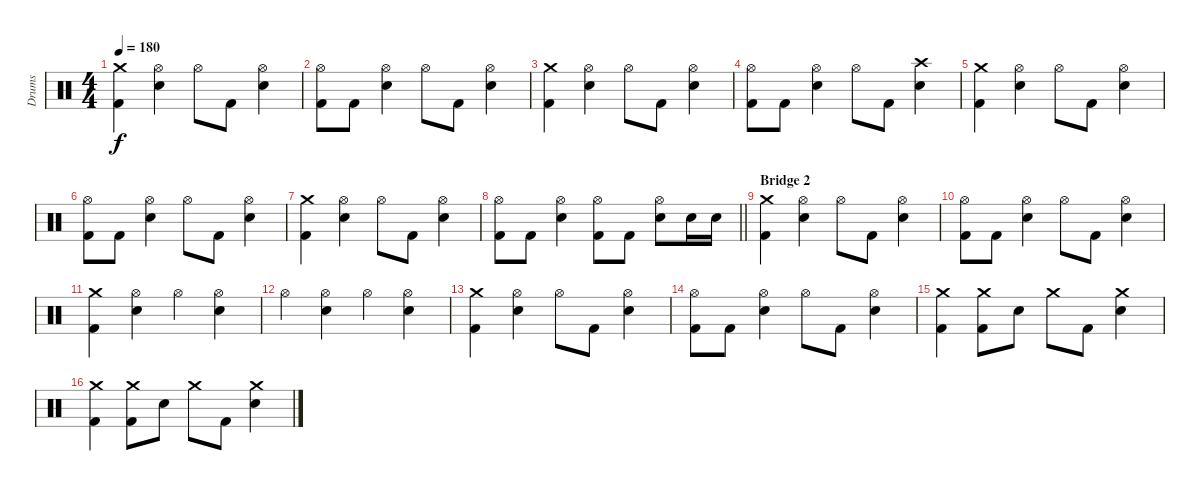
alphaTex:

\track ("Drums" "Drums") {instrument percussion}
\staff {score}
\articulation defaults
\ts (4 4)
\tempo 180
\clef neutral
\ks c
("Crash medium (hit)" "Kick (hit) 2").4{dy f} ("Hi-Hat (open)" "Electric Snare (hit)").4 "Hi-Hat (open)".8 "Kick (hit) 2".8 ("Hi-Hat (open)" "Electric Snare (hit)").4 |
("Hi-Hat (open)" "Kick (hit) 2").8 "Kick (hit) 2".8 ("Hi-Hat (open)" "Electric Snare (hit)").4 "Hi-Hat (open)".8 "Kick (hit) 2".8 ("Hi-Hat (open)" "Electric Snare (hit)").4 |
("Crash medium (hit)" "Kick (hit) 2").4 ("Hi-Hat (open)" "Electric Snare (hit)").4 "Hi-Hat (open)".8 "Kick (hit) 2".8 ("Hi-Hat (open)" "Electric Snare (hit)").4 |
("Hi-Hat (open)" "Kick (hit) 2").8 "Kick (hit) 2".8 ("Hi-Hat (open)" "Electric Snare (hit)").4 "Hi-Hat (open)".8 "Kick (hit) 2".8 ("Crash high (hit)" "Electric Snare (hit)").4 |
("Crash medium (hit)" "Kick (hit) 2").4 ("Hi-Hat (open)" "Electric Snare (hit)").4 "Hi-Hat (open)".8 "Kick (hit) 2".8 ("Hi-Hat (open)" "Electric Snare (hit)").4 |
("Hi-Hat (open)" "Kick (hit) 2").8 "Kick (hit) 2".8 ("Hi-Hat (open)" "Electric Snare (hit)").4 "Hi-Hat (open)".8 "Kick (hit) 2".8 ("Hi-Hat (open)" "Electric Snare (hit)").4 |
("Crash medium (hit)" "Kick (hit) 2").4 ("Hi-Hat (open)" "Electric Snare (hit)").4 "Hi-Hat (open)".8 "Kick (hit) 2".8 ("Hi-Hat (open)" "Electric Snare (hit)").4 |
\barLineRight lightlight
("Hi-Hat (open)" "Kick (hit) 2").8 "Kick (hit) 2".8 ("Hi-Hat (open)" "Electric Snare (hit)").4 ("Hi-Hat (open)" "Kick (hit) 2").8 "Kick (hit) 2".8 ("Hi-Hat (open)" "Electric Snare (hit)").8 "Electric Snare (hit)".16 "Electric Snare (hit)".16 |
\section ("" "Bridge 2")
("Crash medium (hit)" "Kick (hit) 2").4 ("Hi-Hat (open)" "Electric Snare (hit)").4 "Hi-Hat (open)".8 "Kick (hit) 2".8 ("Hi-Hat (open)" "Electric Snare (hit)").4 |
("Hi-Hat (open)" "Kick (hit) 2").8 "Kick (hit) 2".8 ("Hi-Hat (open)" "Electric Snare (hit)").4 "Hi-Hat (open)".8 "Kick (hit) 2".8 ("Hi-Hat (open)" "Electric Snare (hit)").4 |
("Crash medium (hit)" "Kick (hit) 2").4 ("Hi-Hat (open)" "Electric Snare (hit)").4 "Hi-Hat (open)".4 ("Hi-Hat (open)" "Electric Snare (hit)").4 |
"Hi-Hat (open)".4 ("Hi-Hat (open)" "Electric Snare (hit)").4 "Hi-Hat (open)".4 ("Hi-Hat (open)" "Electric Snare (hit)").4 |
("Crash medium (hit)" "Kick (hit) 2").4 ("Hi-Hat (open)" "Electric Snare (hit)").4 "Hi-Hat (open)".8 "Kick (hit) 2".8 ("Hi-Hat (open)" "Electric Snare (hit)").4 |
("Hi-Hat (open)" "Kick (hit) 2").8 "Kick (hit) 2".8 ("Hi-Hat (open)" "Electric Snare (hit)").4 "Hi-Hat (open)".8 "Kick (hit) 2".8 ("Hi-Hat (open)" "Electric Snare (hit)").4 |
("Crash medium (hit)" "Kick (hit) 2").4 ("Crash medium (hit)" "Kick (hit) 2").8 "Electric Snare (hit)".8 "Crash medium (hit)".8 "Kick (hit) 2".8 ("Crash medium (hit)" "Electric Snare (hit)").4 |
("Crash medium (hit)" "Kick (hit) 2").4 ("Crash medium (hit)" "Kick (hit) 2").8 "Electric Snare (hit)".8 "Crash medium (hit)".8 "Kick (hit) 2".8 ("Crash medium (hit)" "Electric Snare (hit)").4
